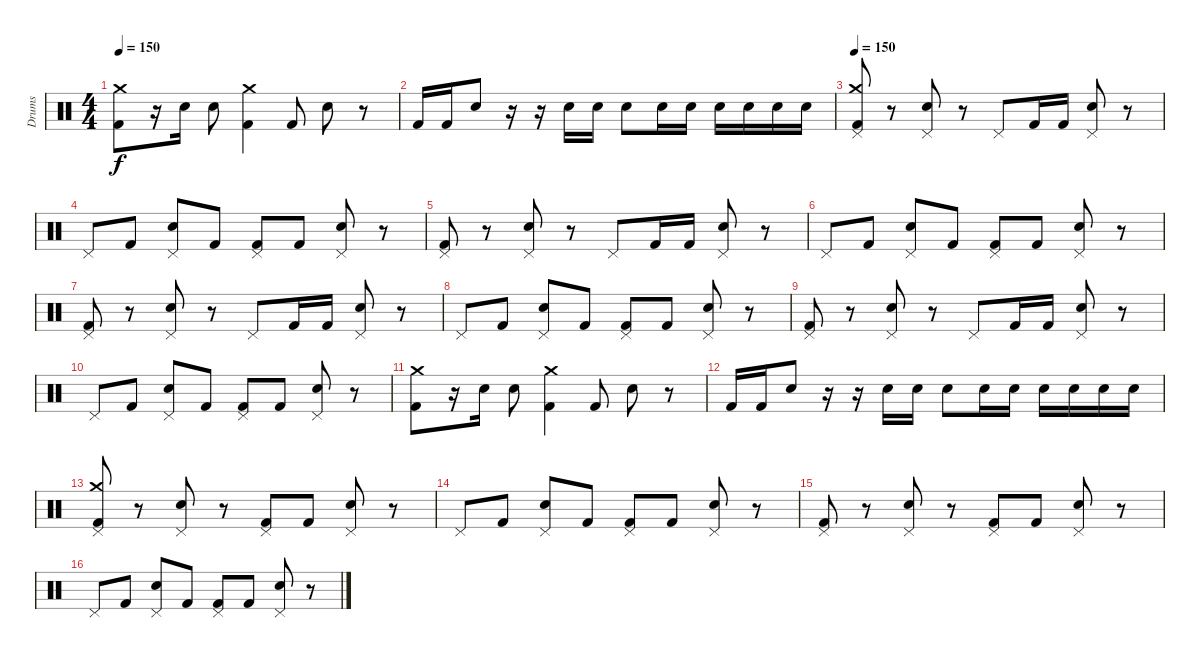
\track ("Drums" "Drums") {instrument percussion}
\staff {score}
\articulation defaults
\ts (4 4)
\tempo 150
\clef neutral
\ks c
("Kick (hit) 2" "Crash medium (hit)").8{dy f} r.16 "Electric Snare (hit)".16 "Electric Snare (hit)".8 ("Kick (hit) 2" "Crash medium (hit)").4 "Kick (hit) 2".8 "Electric Snare (hit)".8 r.8 |
"Kick (hit) 2".16 "Kick (hit) 2".16 "Electric Snare (hit)".8 r.16 r.16 "Electric Snare (hit)".16 "Electric Snare (hit)".16 "Electric Snare (hit)".8 "Electric Snare (hit)".16 "Electric Snare (hit)".16 "Electric Snare (hit)".16 "Electric Snare (hit)".16 "Electric Snare (hit)".16 "Electric Snare (hit)".16 |
\tempo 150
("Kick (hit) 2" "Pedal Hi-Hat (hit)" "Crash medium (hit)").8 r.8 ("Pedal Hi-Hat (hit)" "Electric Snare (hit)").8 r.8 "Pedal Hi-Hat (hit)".8 "Kick (hit) 2".16 "Kick (hit) 2".16 ("Pedal Hi-Hat (hit)" "Electric Snare (hit)").8 r.8 |
"Pedal Hi-Hat (hit)".8 "Kick (hit) 2".8 ("Pedal Hi-Hat (hit)" "Electric Snare (hit)").8 "Kick (hit) 2".8 ("Kick (hit) 2" "Pedal Hi-Hat (hit)").8 "Kick (hit) 2".8 ("Pedal Hi-Hat (hit)" "Electric Snare (hit)").8 r.8 |
("Kick (hit) 2" "Pedal Hi-Hat (hit)").8 r.8 ("Pedal Hi-Hat (hit)" "Electric Snare (hit)").8 r.8 "Pedal Hi-Hat (hit)".8 "Kick (hit) 2".16 "Kick (hit) 2".16 ("Pedal Hi-Hat (hit)" "Electric Snare (hit)").8 r.8 |
"Pedal Hi-Hat (hit)".8 "Kick (hit) 2".8 ("Pedal Hi-Hat (hit)" "Electric Snare (hit)").8 "Kick (hit) 2".8 ("Kick (hit) 2" "Pedal Hi-Hat (hit)").8 "Kick (hit) 2".8 ("Pedal Hi-Hat (hit)" "Electric Snare (hit)").8 r.8 |
("Kick (hit) 2" "Pedal Hi-Hat (hit)").8 r.8 ("Pedal Hi-Hat (hit)" "Electric Snare (hit)").8 r.8 "Pedal Hi-Hat (hit)".8 "Kick (hit) 2".16 "Kick (hit) 2".16 ("Pedal Hi-Hat (hit)" "Electric Snare (hit)").8 r.8 |
"Pedal Hi-Hat (hit)".8 "Kick (hit) 2".8 ("Pedal Hi-Hat (hit)" "Electric Snare (hit)").8 "Kick (hit) 2".8 ("Kick (hit) 2" "Pedal Hi-Hat (hit)").8 "Kick (hit) 2".8 ("Pedal Hi-Hat (hit)" "Electric Snare (hit)").8 r.8 |
("Kick (hit) 2" "Pedal Hi-Hat (hit)").8 r.8 ("Pedal Hi-Hat (hit)" "Electric Snare (hit)").8 r.8 "Pedal Hi-Hat (hit)".8 "Kick (hit) 2".16 "Kick (hit) 2".16 ("Pedal Hi-Hat (hit)" "Electric Snare (hit)").8 r.8 |
"Pedal Hi-Hat (hit)".8 "Kick (hit) 2".8 ("Pedal Hi-Hat (hit)" "Electric Snare (hit)").8 "Kick (hit) 2".8 ("Kick (hit) 2" "Pedal Hi-Hat (hit)").8 "Kick (hit) 2".8 ("Pedal Hi-Hat (hit)" "Electric Snare (hit)").8 r.8 |
("Kick (hit) 2" "Crash medium (hit)").8 r.16 "Electric Snare (hit)".16 "Electric Snare (hit)".8 ("Kick (hit) 2" "Crash medium (hit)").4 "Kick (hit) 2".8 "Electric Snare (hit)".8 r.8 |
"Kick (hit) 2".16 "Kick (hit) 2".16 "Electric Snare (hit)".8 r.16 r.16 "Electric Snare (hit)".16 "Electric Snare (hit)".16 "Electric Snare (hit)".8 "Electric Snare (hit)".16 "Electric Snare (hit)".16 "Electric Snare (hit)".16 "Electric Snare (hit)".16 "Electric Snare (hit)".16 "Electric Snare (hit)".16 |
("Kick (hit) 2" "Pedal Hi-Hat (hit)" "Crash medium (hit)").8 r.8 ("Pedal Hi-Hat (hit)" "Electric Snare (hit)").8 r.8 ("Kick (hit) 2" "Pedal Hi-Hat (hit)").8 "Kick (hit) 2".8 ("Pedal Hi-Hat (hit)" "Electric Snare (hit)").8 r.8 |
"Pedal Hi-Hat (hit)".8 "Kick (hit) 2".8 ("Pedal Hi-Hat (hit)" "Electric Snare (hit)").8 "Kick (hit) 2".8 ("Kick (hit) 2" "Pedal Hi-Hat (hit)").8 "Kick (hit) 2".8 ("Pedal Hi-Hat (hit)" "Electric Snare (hit)").8 r.8 |
("Kick (hit) 2" "Pedal Hi-Hat (hit)").8 r.8 ("Pedal Hi-Hat (hit)" "Electric Snare (hit)").8 r.8 ("Kick (hit) 2" "Pedal Hi-Hat (hit)").8 "Kick (hit) 2".8 ("Pedal Hi-Hat (hit)" "Electric Snare (hit)").8 r.8 |
"Pedal Hi-Hat (hit)".8 "Kick (hit) 2".8 ("Pedal Hi-Hat (hit)" "Electric Snare (hit)").8 "Kick (hit) 2".8 ("Kick (hit) 2" "Pedal Hi-Hat (hit)").8 "Kick (hit) 2".8 ("Pedal Hi-Hat (hit)" "Electric Snare (hit)").8 r.8
